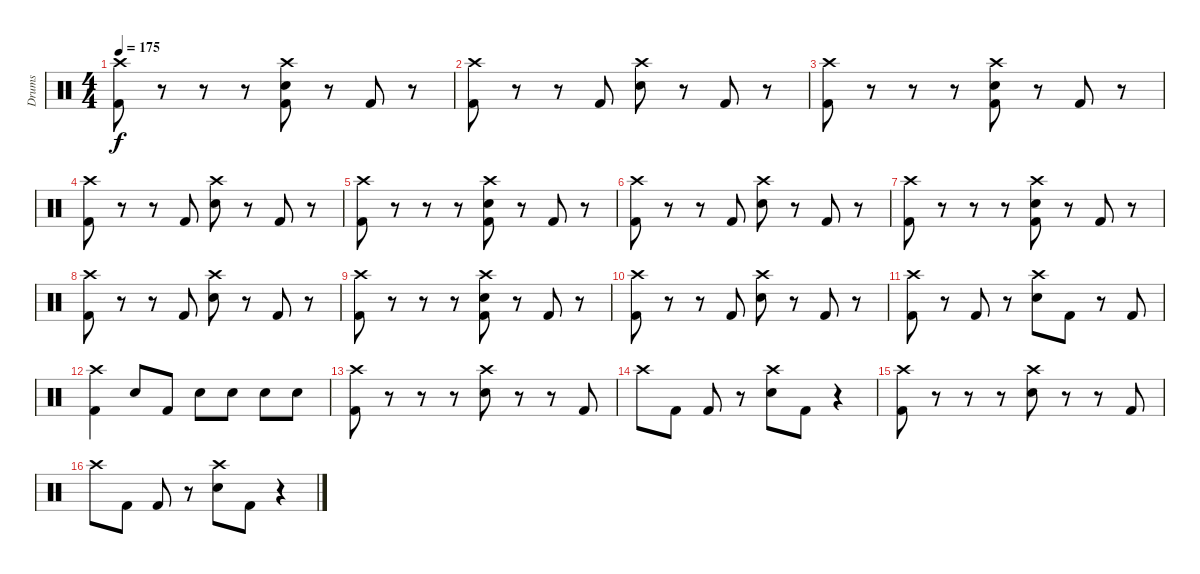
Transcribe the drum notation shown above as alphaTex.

\track ("Drums" "Drums") {instrument percussion}
\staff {score}
\articulation defaults
\ts (4 4)
\tempo 175
\clef neutral
\ks c
("Crash high (hit)" "Kick (hit) 2").8{dy f} r.8 r.8 r.8 ("Crash high (hit)" "Electric Snare (hit)" "Kick (hit) 2").8 r.8 "Kick (hit) 2".8 r.8 |
("Crash high (hit)" "Kick (hit) 2").8 r.8 r.8 "Kick (hit) 2".8 ("Crash high (hit)" "Electric Snare (hit)").8 r.8 "Kick (hit) 2".8 r.8 |
("Crash high (hit)" "Kick (hit) 2").8 r.8 r.8 r.8 ("Crash high (hit)" "Electric Snare (hit)" "Kick (hit) 2").8 r.8 "Kick (hit) 2".8 r.8 |
("Crash high (hit)" "Kick (hit) 2").8 r.8 r.8 "Kick (hit) 2".8 ("Crash high (hit)" "Electric Snare (hit)").8 r.8 "Kick (hit) 2".8 r.8 |
("Crash high (hit)" "Kick (hit) 2").8 r.8 r.8 r.8 ("Crash high (hit)" "Electric Snare (hit)" "Kick (hit) 2").8 r.8 "Kick (hit) 2".8 r.8 |
("Crash high (hit)" "Kick (hit) 2").8 r.8 r.8 "Kick (hit) 2".8 ("Crash high (hit)" "Electric Snare (hit)").8 r.8 "Kick (hit) 2".8 r.8 |
("Crash high (hit)" "Kick (hit) 2").8 r.8 r.8 r.8 ("Crash high (hit)" "Electric Snare (hit)" "Kick (hit) 2").8 r.8 "Kick (hit) 2".8 r.8 |
("Crash high (hit)" "Kick (hit) 2").8 r.8 r.8 "Kick (hit) 2".8 ("Crash high (hit)" "Electric Snare (hit)").8 r.8 "Kick (hit) 2".8 r.8 |
("Crash high (hit)" "Kick (hit) 2").8 r.8 r.8 r.8 ("Crash high (hit)" "Electric Snare (hit)" "Kick (hit) 2").8 r.8 "Kick (hit) 2".8 r.8 |
("Crash high (hit)" "Kick (hit) 2").8 r.8 r.8 "Kick (hit) 2".8 ("Crash high (hit)" "Electric Snare (hit)").8 r.8 "Kick (hit) 2".8 r.8 |
("Crash high (hit)" "Kick (hit) 2").8 r.8 "Kick (hit) 2".8 r.8 ("Crash high (hit)" "Electric Snare (hit)").8 "Kick (hit) 2".8 r.8 "Kick (hit) 2".8 |
("Crash high (hit)" "Kick (hit) 2").4 "Electric Snare (hit)".8 "Kick (hit) 2".8 "Electric Snare (hit)".8 "Electric Snare (hit)".8 "Electric Snare (hit)".8 "Electric Snare (hit)".8 |
("Crash high (hit)" "Kick (hit) 2").8 r.8 r.8 r.8 ("Crash high (hit)" "Electric Snare (hit)").8 r.8 r.8 "Kick (hit) 2".8 |
"Crash high (hit)".8 "Kick (hit) 2".8 "Kick (hit) 2".8 r.8 ("Crash high (hit)" "Electric Snare (hit)").8 "Kick (hit) 2".8 r.4 |
("Crash high (hit)" "Kick (hit) 2").8 r.8 r.8 r.8 ("Crash high (hit)" "Electric Snare (hit)").8 r.8 r.8 "Kick (hit) 2".8 |
"Crash high (hit)".8 "Kick (hit) 2".8 "Kick (hit) 2".8 r.8 ("Crash high (hit)" "Electric Snare (hit)").8 "Kick (hit) 2".8 r.4
